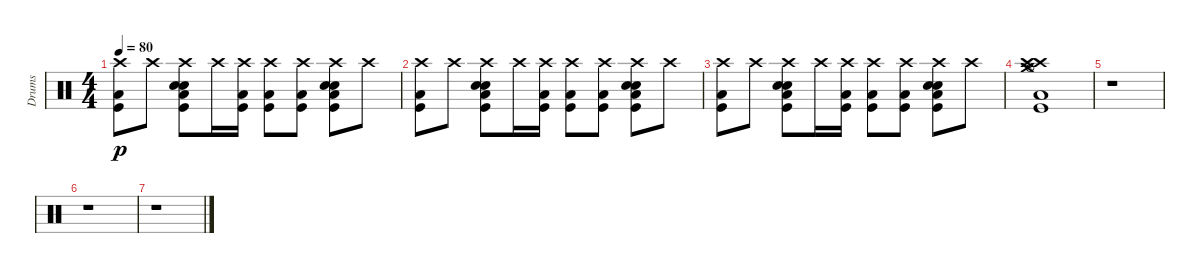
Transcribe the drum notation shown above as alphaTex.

\track ("Drums" "Drums") {instrument percussion}
\staff {score}
\articulation defaults
\ts (4 4)
\tempo 80
\clef neutral
\ks c
("Crash high (hit)" "Low Tom (hit)" "Kick (hit)").8{dy p} "Crash high (hit)".8 ("Crash high (hit)" "Low Tom (hit)" "Electric Snare (hit)" "Snare (hit) 2" "Kick (hit)").8 "Crash high (hit)".16 ("Crash high (hit)" "Low Tom (hit)" "Kick (hit)").16 ("Crash high (hit)" "Low Tom (hit)" "Kick (hit)").8 ("Crash high (hit)" "Low Tom (hit)" "Kick (hit)").8 ("Crash high (hit)" "Low Tom (hit)" "Electric Snare (hit)" "Snare (hit) 2" "Kick (hit)").8 "Crash high (hit)".8 |
("Crash high (hit)" "Low Tom (hit)" "Kick (hit)").8 "Crash high (hit)".8 ("Crash high (hit)" "Low Tom (hit)" "Electric Snare (hit)" "Snare (hit) 2" "Kick (hit)").8 "Crash high (hit)".16 ("Crash high (hit)" "Low Tom (hit)" "Kick (hit)").16 ("Crash high (hit)" "Low Tom (hit)" "Kick (hit)").8 ("Crash high (hit)" "Low Tom (hit)" "Kick (hit)").8 ("Crash high (hit)" "Low Tom (hit)" "Electric Snare (hit)" "Snare (hit) 2" "Kick (hit)").8 "Crash high (hit)".8 |
("Crash high (hit)" "Low Tom (hit)" "Kick (hit)").8 "Crash high (hit)".8 ("Crash high (hit)" "Low Tom (hit)" "Electric Snare (hit)" "Snare (hit) 2" "Kick (hit)").8 "Crash high (hit)".16 ("Crash high (hit)" "Low Tom (hit)" "Kick (hit)").16 ("Crash high (hit)" "Low Tom (hit)" "Kick (hit)").8 ("Crash high (hit)" "Low Tom (hit)" "Kick (hit)").8 ("Crash high (hit)" "Low Tom (hit)" "Electric Snare (hit)" "Snare (hit) 2" "Kick (hit)").8 "Crash high (hit)".8 |
("Crash high (hit)" "Low Tom (hit)" "Kick (hit)" "Crash high (hit)" "Crash medium (hit)" "Hi-Hat (open)").1 |
r.1 |
r.1 |
r.1
